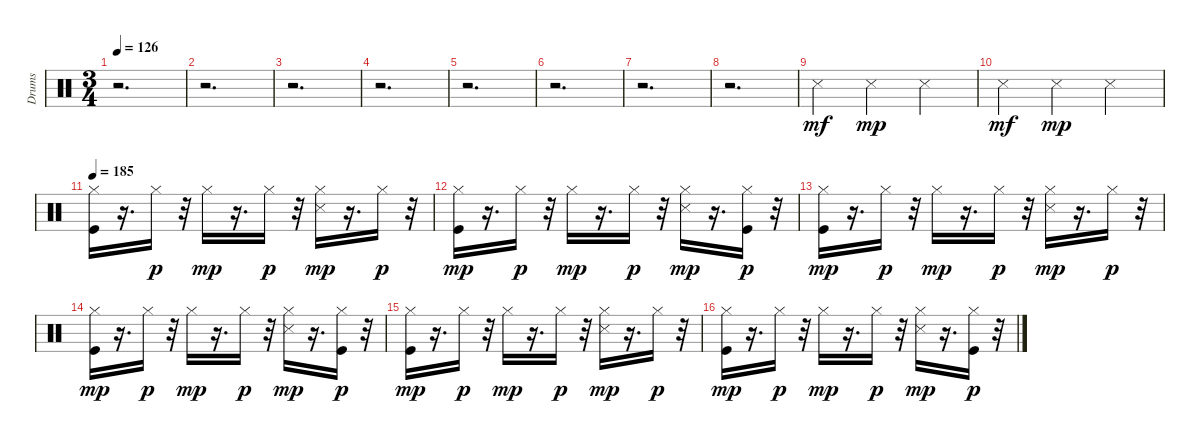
\track ("Drums " "Drums ") {instrument percussion}
\staff {score}
\articulation defaults
\ts (3 4)
\tempo 126
\clef neutral
\ks c
r.2{d dy mf} |
r.2{d} |
r.2{d} |
r.2{d} |
r.2{d} |
r.2{d} |
r.2{d} |
r.2{d} |
"Snare (side stick) 3".4 "Snare (side stick) 3".4{dy mp} "Snare (side stick) 3".4 |
"Snare (side stick) 3".4{dy mf} "Snare (side stick) 3".4{dy mp} "Snare (side stick) 3".4 |
\tempo 185
("Kick (hit)" "Hi-Hat (closed)").16 r.16{d} "Hi-Hat (closed)".16{dy p} r.32 "Hi-Hat (closed)".16{dy mp} r.16{d} "Hi-Hat (closed)".16{dy p} r.32 ("Hi-Hat (closed)" "Snare (side stick) 3").16{dy mp} r.16{d} "Hi-Hat (closed)".16{dy p} r.32 |
("Kick (hit)" "Hi-Hat (closed)").16{dy mp} r.16{d} "Hi-Hat (closed)".16{dy p} r.32 "Hi-Hat (closed)".16{dy mp} r.16{d} "Hi-Hat (closed)".16{dy p} r.32 ("Hi-Hat (closed)" "Snare (side stick) 3").16{dy mp} r.16{d} ("Kick (hit)" "Hi-Hat (closed)").16{dy p} r.32 |
("Kick (hit)" "Hi-Hat (closed)").16{dy mp} r.16{d} "Hi-Hat (closed)".16{dy p} r.32 "Hi-Hat (closed)".16{dy mp} r.16{d} "Hi-Hat (closed)".16{dy p} r.32 ("Hi-Hat (closed)" "Snare (side stick) 3").16{dy mp} r.16{d} "Hi-Hat (closed)".16{dy p} r.32 |
("Kick (hit)" "Hi-Hat (closed)").16{dy mp} r.16{d} "Hi-Hat (closed)".16{dy p} r.32 "Hi-Hat (closed)".16{dy mp} r.16{d} "Hi-Hat (closed)".16{dy p} r.32 ("Hi-Hat (closed)" "Snare (side stick) 3").16{dy mp} r.16{d} ("Kick (hit)" "Hi-Hat (closed)").16{dy p} r.32 |
("Kick (hit)" "Hi-Hat (closed)").16{dy mp} r.16{d} "Hi-Hat (closed)".16{dy p} r.32 "Hi-Hat (closed)".16{dy mp} r.16{d} "Hi-Hat (closed)".16{dy p} r.32 ("Hi-Hat (closed)" "Snare (side stick) 3").16{dy mp} r.16{d} "Hi-Hat (closed)".16{dy p} r.32 |
("Kick (hit)" "Hi-Hat (closed)").16{dy mp} r.16{d} "Hi-Hat (closed)".16{dy p} r.32 "Hi-Hat (closed)".16{dy mp} r.16{d} "Hi-Hat (closed)".16{dy p} r.32 ("Hi-Hat (closed)" "Snare (side stick) 3").16{dy mp} r.16{d} ("Kick (hit)" "Hi-Hat (closed)").16{dy p} r.32
